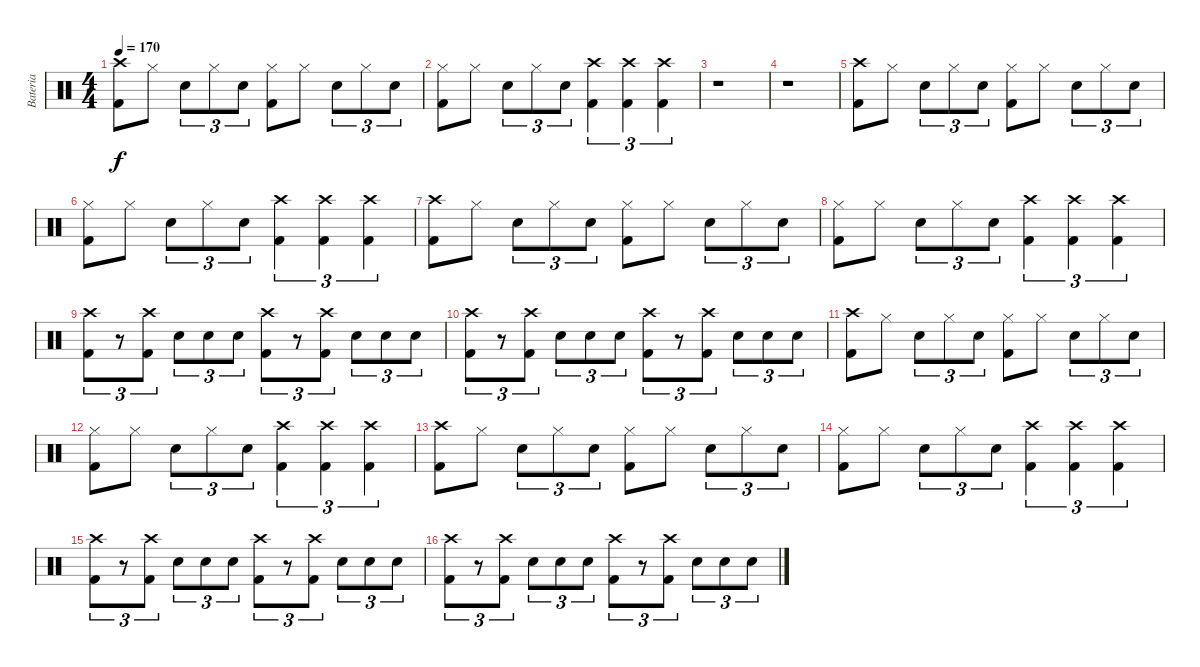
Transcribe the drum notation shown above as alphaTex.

\track ("Bateria" "Bateria") {instrument percussion}
\staff {score}
\articulation defaults
\ts (4 4)
\tempo 170
\clef neutral
\ks c
("Crash high (hit)" "Kick (hit) 2").8{dy f} "Hi-Hat (closed)".8 "Snare (hit) 2".8{tu (3 2)} "Hi-Hat (closed)".8{tu (3 2)} "Snare (hit) 2".8{tu (3 2)} ("Hi-Hat (closed)" "Kick (hit) 2").8 "Hi-Hat (closed)".8 "Snare (hit) 2".8{tu (3 2)} "Hi-Hat (closed)".8{tu (3 2)} "Snare (hit) 2".8{tu (3 2)} |
("Hi-Hat (closed)" "Kick (hit) 2").8 "Hi-Hat (closed)".8 "Snare (hit) 2".8{tu (3 2)} "Hi-Hat (closed)".8{tu (3 2)} "Snare (hit) 2".8{tu (3 2)} ("Crash high (hit)" "Kick (hit) 2").4{tu (3 2)} ("Crash high (hit)" "Kick (hit) 2").4{tu (3 2)} ("Crash high (hit)" "Kick (hit) 2").4{tu (3 2)} |
r.1 |
r.1 |
("Crash high (hit)" "Kick (hit) 2").8 "Hi-Hat (closed)".8 "Snare (hit) 2".8{tu (3 2)} "Hi-Hat (closed)".8{tu (3 2)} "Snare (hit) 2".8{tu (3 2)} ("Hi-Hat (closed)" "Kick (hit) 2").8 "Hi-Hat (closed)".8 "Snare (hit) 2".8{tu (3 2)} "Hi-Hat (closed)".8{tu (3 2)} "Snare (hit) 2".8{tu (3 2)} |
("Hi-Hat (closed)" "Kick (hit) 2").8 "Hi-Hat (closed)".8 "Snare (hit) 2".8{tu (3 2)} "Hi-Hat (closed)".8{tu (3 2)} "Snare (hit) 2".8{tu (3 2)} ("Crash high (hit)" "Kick (hit) 2").4{tu (3 2)} ("Crash high (hit)" "Kick (hit) 2").4{tu (3 2)} ("Crash high (hit)" "Kick (hit) 2").4{tu (3 2)} |
("Crash high (hit)" "Kick (hit) 2").8 "Hi-Hat (closed)".8 "Snare (hit) 2".8{tu (3 2)} "Hi-Hat (closed)".8{tu (3 2)} "Snare (hit) 2".8{tu (3 2)} ("Hi-Hat (closed)" "Kick (hit) 2").8 "Hi-Hat (closed)".8 "Snare (hit) 2".8{tu (3 2)} "Hi-Hat (closed)".8{tu (3 2)} "Snare (hit) 2".8{tu (3 2)} |
("Hi-Hat (closed)" "Kick (hit) 2").8 "Hi-Hat (closed)".8 "Snare (hit) 2".8{tu (3 2)} "Hi-Hat (closed)".8{tu (3 2)} "Snare (hit) 2".8{tu (3 2)} ("Crash high (hit)" "Kick (hit) 2").4{tu (3 2)} ("Crash high (hit)" "Kick (hit) 2").4{tu (3 2)} ("Crash high (hit)" "Kick (hit) 2").4{tu (3 2)} |
("Crash high (hit)" "Kick (hit) 2").8{tu (3 2)} r.8{tu (3 2)} ("Crash high (hit)" "Kick (hit) 2").8{tu (3 2)} "Snare (hit) 2".8{tu (3 2)} "Snare (hit) 2".8{tu (3 2)} "Snare (hit) 2".8{tu (3 2)} ("Crash high (hit)" "Kick (hit) 2").8{tu (3 2)} r.8{tu (3 2)} ("Crash high (hit)" "Kick (hit) 2").8{tu (3 2)} "Snare (hit) 2".8{tu (3 2)} "Snare (hit) 2".8{tu (3 2)} "Snare (hit) 2".8{tu (3 2)} |
("Crash high (hit)" "Kick (hit) 2").8{tu (3 2)} r.8{tu (3 2)} ("Crash high (hit)" "Kick (hit) 2").8{tu (3 2)} "Snare (hit) 2".8{tu (3 2)} "Snare (hit) 2".8{tu (3 2)} "Snare (hit) 2".8{tu (3 2)} ("Crash high (hit)" "Kick (hit) 2").8{tu (3 2)} r.8{tu (3 2)} ("Crash high (hit)" "Kick (hit) 2").8{tu (3 2)} "Snare (hit) 2".8{tu (3 2)} "Snare (hit) 2".8{tu (3 2)} "Snare (hit) 2".8{tu (3 2)} |
("Crash high (hit)" "Kick (hit) 2").8 "Hi-Hat (closed)".8 "Snare (hit) 2".8{tu (3 2)} "Hi-Hat (closed)".8{tu (3 2)} "Snare (hit) 2".8{tu (3 2)} ("Hi-Hat (closed)" "Kick (hit) 2").8 "Hi-Hat (closed)".8 "Snare (hit) 2".8{tu (3 2)} "Hi-Hat (closed)".8{tu (3 2)} "Snare (hit) 2".8{tu (3 2)} |
("Hi-Hat (closed)" "Kick (hit) 2").8 "Hi-Hat (closed)".8 "Snare (hit) 2".8{tu (3 2)} "Hi-Hat (closed)".8{tu (3 2)} "Snare (hit) 2".8{tu (3 2)} ("Crash high (hit)" "Kick (hit) 2").4{tu (3 2)} ("Crash high (hit)" "Kick (hit) 2").4{tu (3 2)} ("Crash high (hit)" "Kick (hit) 2").4{tu (3 2)} |
("Crash high (hit)" "Kick (hit) 2").8 "Hi-Hat (closed)".8 "Snare (hit) 2".8{tu (3 2)} "Hi-Hat (closed)".8{tu (3 2)} "Snare (hit) 2".8{tu (3 2)} ("Hi-Hat (closed)" "Kick (hit) 2").8 "Hi-Hat (closed)".8 "Snare (hit) 2".8{tu (3 2)} "Hi-Hat (closed)".8{tu (3 2)} "Snare (hit) 2".8{tu (3 2)} |
("Hi-Hat (closed)" "Kick (hit) 2").8 "Hi-Hat (closed)".8 "Snare (hit) 2".8{tu (3 2)} "Hi-Hat (closed)".8{tu (3 2)} "Snare (hit) 2".8{tu (3 2)} ("Crash high (hit)" "Kick (hit) 2").4{tu (3 2)} ("Crash high (hit)" "Kick (hit) 2").4{tu (3 2)} ("Crash high (hit)" "Kick (hit) 2").4{tu (3 2)} |
("Crash high (hit)" "Kick (hit) 2").8{tu (3 2)} r.8{tu (3 2)} ("Crash high (hit)" "Kick (hit) 2").8{tu (3 2)} "Snare (hit) 2".8{tu (3 2)} "Snare (hit) 2".8{tu (3 2)} "Snare (hit) 2".8{tu (3 2)} ("Crash high (hit)" "Kick (hit) 2").8{tu (3 2)} r.8{tu (3 2)} ("Crash high (hit)" "Kick (hit) 2").8{tu (3 2)} "Snare (hit) 2".8{tu (3 2)} "Snare (hit) 2".8{tu (3 2)} "Snare (hit) 2".8{tu (3 2)} |
("Crash high (hit)" "Kick (hit) 2").8{tu (3 2)} r.8{tu (3 2)} ("Crash high (hit)" "Kick (hit) 2").8{tu (3 2)} "Snare (hit) 2".8{tu (3 2)} "Snare (hit) 2".8{tu (3 2)} "Snare (hit) 2".8{tu (3 2)} ("Crash high (hit)" "Kick (hit) 2").8{tu (3 2)} r.8{tu (3 2)} ("Crash high (hit)" "Kick (hit) 2").8{tu (3 2)} "Snare (hit) 2".8{tu (3 2)} "Snare (hit) 2".8{tu (3 2)} "Snare (hit) 2".8{tu (3 2)}
